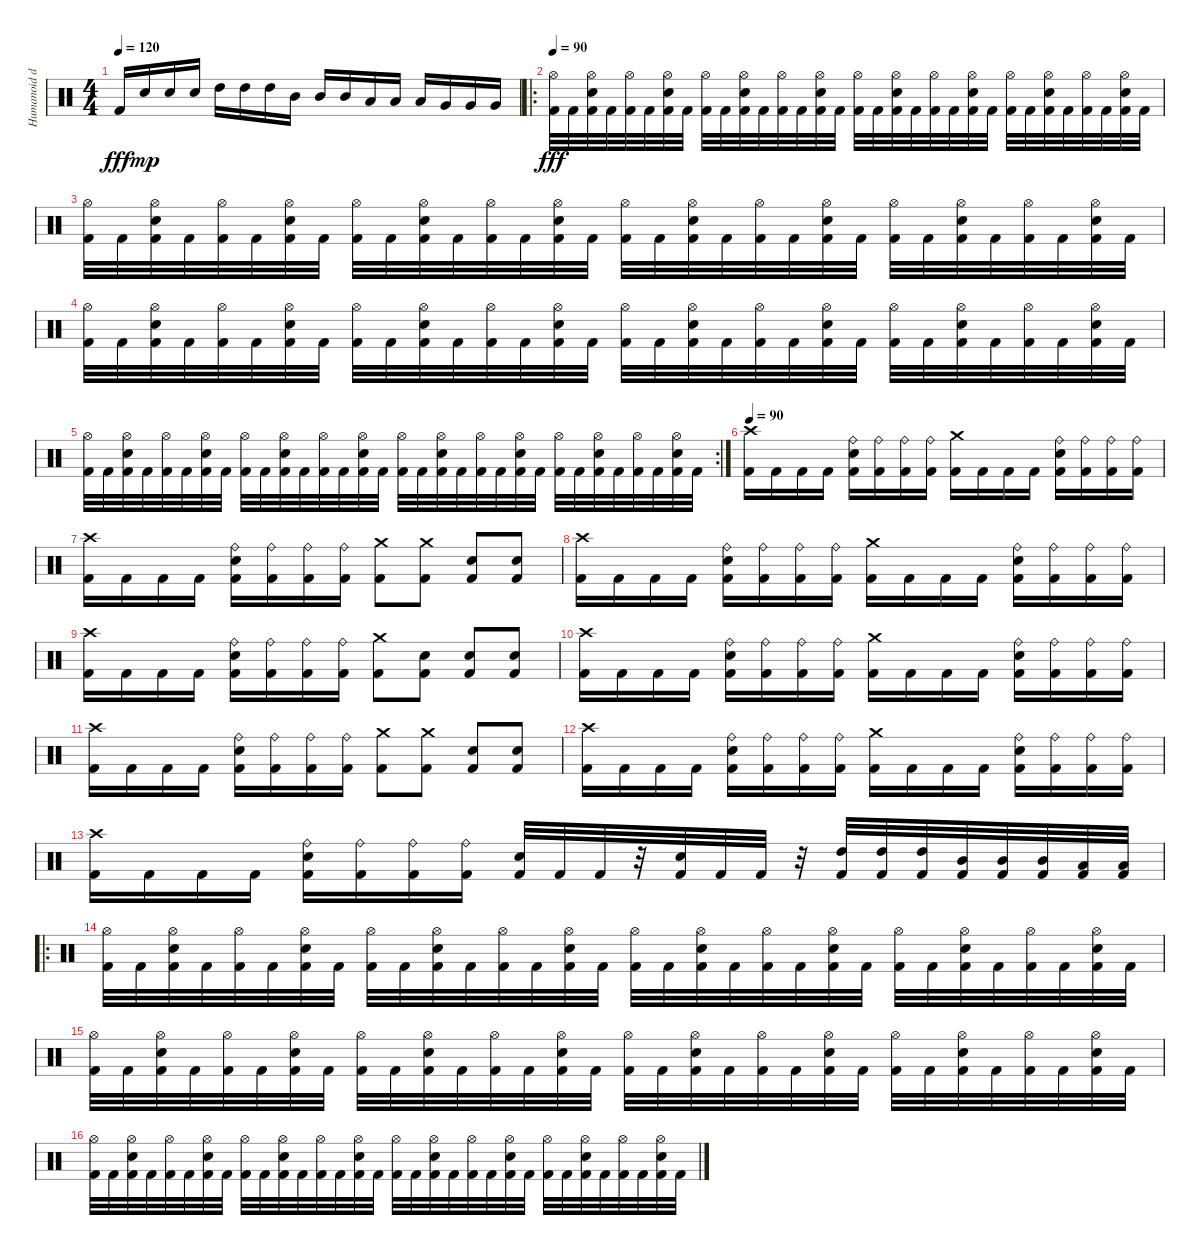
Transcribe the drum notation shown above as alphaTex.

\track ("Humanoid drum machine" "Humanoid d") {instrument percussion}
\staff {score}
\articulation defaults
\ts (4 4)
\tempo 120
\clef neutral
\ks c "Kick (hit) 2".16{dy fff} "Electric Snare (hit)".16{dy mp} "Electric Snare (hit)".16 "Electric Snare (hit)".16 "High Tom (hit)".16 "High Tom (hit)".16 "High Tom (hit)".16 "Mid Tom (hit)".16 "Mid Tom (hit)".16 "Mid Tom (hit)".16 "Low Tom (hit)".16 "Low Tom (hit)".16 "Low Tom (hit)".16 "Very Low Tom (hit)".16 "Very Low Tom (hit)".16 "Very Low Tom (hit)".16
|
\ro
\tempo 90
("Hi-Hat (open)" "Kick (hit) 2").32{dy fff} "Kick (hit) 2".32 ("Hi-Hat (open)" "Electric Snare (hit)" "Kick (hit) 2").32 "Kick (hit) 2".32 ("Hi-Hat (open)" "Kick (hit) 2").32 "Kick (hit) 2".32 ("Hi-Hat (open)" "Electric Snare (hit)" "Kick (hit) 2").32 "Kick (hit) 2".32 ("Hi-Hat (open)" "Kick (hit) 2").32 "Kick (hit) 2".32 ("Hi-Hat (open)" "Electric Snare (hit)" "Kick (hit) 2").32 "Kick (hit) 2".32 ("Hi-Hat (open)" "Kick (hit) 2").32 "Kick (hit) 2".32 ("Hi-Hat (open)" "Electric Snare (hit)" "Kick (hit) 2").32 "Kick (hit) 2".32 ("Hi-Hat (open)" "Kick (hit) 2").32 "Kick (hit) 2".32 ("Hi-Hat (open)" "Electric Snare (hit)" "Kick (hit) 2").32 "Kick (hit) 2".32 ("Hi-Hat (open)" "Kick (hit) 2").32 "Kick (hit) 2".32 ("Hi-Hat (open)" "Electric Snare (hit)" "Kick (hit) 2").32 "Kick (hit) 2".32 ("Hi-Hat (open)" "Kick (hit) 2").32 "Kick (hit) 2".32 ("Hi-Hat (open)" "Electric Snare (hit)" "Kick (hit) 2").32 "Kick (hit) 2".32 ("Hi-Hat (open)" "Kick (hit) 2").32 "Kick (hit) 2".32 ("Hi-Hat (open)" "Electric Snare (hit)" "Kick (hit) 2").32 "Kick (hit) 2".32 |
("Hi-Hat (open)" "Kick (hit) 2").32 "Kick (hit) 2".32 ("Hi-Hat (open)" "Electric Snare (hit)" "Kick (hit) 2").32 "Kick (hit) 2".32 ("Hi-Hat (open)" "Kick (hit) 2").32 "Kick (hit) 2".32 ("Hi-Hat (open)" "Electric Snare (hit)" "Kick (hit) 2").32 "Kick (hit) 2".32 ("Hi-Hat (open)" "Kick (hit) 2").32 "Kick (hit) 2".32 ("Hi-Hat (open)" "Electric Snare (hit)" "Kick (hit) 2").32 "Kick (hit) 2".32 ("Hi-Hat (open)" "Kick (hit) 2").32 "Kick (hit) 2".32 ("Hi-Hat (open)" "Electric Snare (hit)" "Kick (hit) 2").32 "Kick (hit) 2".32 ("Hi-Hat (open)" "Kick (hit) 2").32 "Kick (hit) 2".32 ("Hi-Hat (open)" "Electric Snare (hit)" "Kick (hit) 2").32 "Kick (hit) 2".32 ("Hi-Hat (open)" "Kick (hit) 2").32 "Kick (hit) 2".32 ("Hi-Hat (open)" "Electric Snare (hit)" "Kick (hit) 2").32 "Kick (hit) 2".32 ("Hi-Hat (open)" "Kick (hit) 2").32 "Kick (hit) 2".32 ("Hi-Hat (open)" "Electric Snare (hit)" "Kick (hit) 2").32 "Kick (hit) 2".32 ("Hi-Hat (open)" "Kick (hit) 2").32 "Kick (hit) 2".32 ("Hi-Hat (open)" "Electric Snare (hit)" "Kick (hit) 2").32 "Kick (hit) 2".32 |
("Hi-Hat (open)" "Kick (hit) 2").32 "Kick (hit) 2".32 ("Hi-Hat (open)" "Electric Snare (hit)" "Kick (hit) 2").32 "Kick (hit) 2".32 ("Hi-Hat (open)" "Kick (hit) 2").32 "Kick (hit) 2".32 ("Hi-Hat (open)" "Electric Snare (hit)" "Kick (hit) 2").32 "Kick (hit) 2".32 ("Hi-Hat (open)" "Kick (hit) 2").32 "Kick (hit) 2".32 ("Hi-Hat (open)" "Electric Snare (hit)" "Kick (hit) 2").32 "Kick (hit) 2".32 ("Hi-Hat (open)" "Kick (hit) 2").32 "Kick (hit) 2".32 ("Hi-Hat (open)" "Electric Snare (hit)" "Kick (hit) 2").32 "Kick (hit) 2".32 ("Hi-Hat (open)" "Kick (hit) 2").32 "Kick (hit) 2".32 ("Hi-Hat (open)" "Electric Snare (hit)" "Kick (hit) 2").32 "Kick (hit) 2".32 ("Hi-Hat (open)" "Kick (hit) 2").32 "Kick (hit) 2".32 ("Hi-Hat (open)" "Electric Snare (hit)" "Kick (hit) 2").32 "Kick (hit) 2".32 ("Hi-Hat (open)" "Kick (hit) 2").32 "Kick (hit) 2".32 ("Hi-Hat (open)" "Electric Snare (hit)" "Kick (hit) 2").32 "Kick (hit) 2".32 ("Hi-Hat (open)" "Kick (hit) 2").32 "Kick (hit) 2".32 ("Hi-Hat (open)" "Electric Snare (hit)" "Kick (hit) 2").32 "Kick (hit) 2".32 |
\rc 2
("Hi-Hat (open)" "Kick (hit) 2").32 "Kick (hit) 2".32 ("Hi-Hat (open)" "Electric Snare (hit)" "Kick (hit) 2").32 "Kick (hit) 2".32 ("Hi-Hat (open)" "Kick (hit) 2").32 "Kick (hit) 2".32 ("Hi-Hat (open)" "Electric Snare (hit)" "Kick (hit) 2").32 "Kick (hit) 2".32 ("Hi-Hat (open)" "Kick (hit) 2").32 "Kick (hit) 2".32 ("Hi-Hat (open)" "Electric Snare (hit)" "Kick (hit) 2").32 "Kick (hit) 2".32 ("Hi-Hat (open)" "Kick (hit) 2").32 "Kick (hit) 2".32 ("Hi-Hat (open)" "Electric Snare (hit)" "Kick (hit) 2").32 "Kick (hit) 2".32 ("Hi-Hat (open)" "Kick (hit) 2").32 "Kick (hit) 2".32 ("Hi-Hat (open)" "Electric Snare (hit)" "Kick (hit) 2").32 "Kick (hit) 2".32 ("Hi-Hat (open)" "Kick (hit) 2").32 "Kick (hit) 2".32 ("Hi-Hat (open)" "Electric Snare (hit)" "Kick (hit) 2").32 "Kick (hit) 2".32 ("Hi-Hat (open)" "Kick (hit) 2").32 "Kick (hit) 2".32 ("Hi-Hat (open)" "Electric Snare (hit)" "Kick (hit) 2").32 "Kick (hit) 2".32 ("Hi-Hat (open)" "Kick (hit) 2").32 "Kick (hit) 2".32 ("Hi-Hat (open)" "Electric Snare (hit)" "Kick (hit) 2").32 "Kick (hit) 2".32 |
\tempo 90
("Crash high (hit)" "Kick (hit) 2").16 "Kick (hit) 2".16 "Kick (hit) 2".16 "Kick (hit) 2".16 ("Electric Snare (hit)" "Ride (bell)" "Kick (hit) 2").16 ("Ride (bell)" "Kick (hit) 2").16 ("Ride (bell)" "Kick (hit) 2").16 ("Ride (bell)" "Kick (hit) 2").16 ("Crash medium (hit)" "Kick (hit) 2").16 "Kick (hit) 2".16 "Kick (hit) 2".16 "Kick (hit) 2".16 ("Electric Snare (hit)" "Ride (bell)" "Kick (hit) 2").16 ("Ride (bell)" "Kick (hit) 2").16 ("Ride (bell)" "Kick (hit) 2").16 ("Ride (bell)" "Kick (hit) 2").16 |
("Crash high (hit)" "Kick (hit) 2").16 "Kick (hit) 2".16 "Kick (hit) 2".16 "Kick (hit) 2".16 ("Electric Snare (hit)" "Ride (bell)" "Kick (hit) 2").16 ("Ride (bell)" "Kick (hit) 2").16 ("Ride (bell)" "Kick (hit) 2").16 ("Ride (bell)" "Kick (hit) 2").16 ("Crash medium (hit)" "Kick (hit) 2").8 ("Crash medium (hit)" "Kick (hit) 2").8 ("Electric Snare (hit)" "Kick (hit) 2").8 ("Electric Snare (hit)" "Kick (hit) 2").8 |
("Crash high (hit)" "Kick (hit) 2").16 "Kick (hit) 2".16 "Kick (hit) 2".16 "Kick (hit) 2".16 ("Electric Snare (hit)" "Ride (bell)" "Kick (hit) 2").16 ("Ride (bell)" "Kick (hit) 2").16 ("Ride (bell)" "Kick (hit) 2").16 ("Ride (bell)" "Kick (hit) 2").16 ("Crash medium (hit)" "Kick (hit) 2").16 "Kick (hit) 2".16 "Kick (hit) 2".16 "Kick (hit) 2".16 ("Electric Snare (hit)" "Ride (bell)" "Kick (hit) 2").16 ("Ride (bell)" "Kick (hit) 2").16 ("Ride (bell)" "Kick (hit) 2").16 ("Ride (bell)" "Kick (hit) 2").16 |
("Crash high (hit)" "Kick (hit) 2").16 "Kick (hit) 2".16 "Kick (hit) 2".16 "Kick (hit) 2".16 ("Electric Snare (hit)" "Ride (bell)" "Kick (hit) 2").16 ("Ride (bell)" "Kick (hit) 2").16 ("Ride (bell)" "Kick (hit) 2").16 ("Ride (bell)" "Kick (hit) 2").16 ("Crash medium (hit)" "Kick (hit) 2").8 ("Electric Snare (hit)" "Kick (hit) 2").8 ("Electric Snare (hit)" "Kick (hit) 2").8 ("Electric Snare (hit)" "Kick (hit) 2").8 |
("Crash high (hit)" "Kick (hit) 2").16 "Kick (hit) 2".16 "Kick (hit) 2".16 "Kick (hit) 2".16 ("Electric Snare (hit)" "Ride (bell)" "Kick (hit) 2").16 ("Ride (bell)" "Kick (hit) 2").16 ("Ride (bell)" "Kick (hit) 2").16 ("Ride (bell)" "Kick (hit) 2").16 ("Crash medium (hit)" "Kick (hit) 2").16 "Kick (hit) 2".16 "Kick (hit) 2".16 "Kick (hit) 2".16 ("Electric Snare (hit)" "Ride (bell)" "Kick (hit) 2").16 ("Ride (bell)" "Kick (hit) 2").16 ("Ride (bell)" "Kick (hit) 2").16 ("Ride (bell)" "Kick (hit) 2").16 |
("Crash high (hit)" "Kick (hit) 2").16 "Kick (hit) 2".16 "Kick (hit) 2".16 "Kick (hit) 2".16 ("Electric Snare (hit)" "Ride (bell)" "Kick (hit) 2").16 ("Ride (bell)" "Kick (hit) 2").16 ("Ride (bell)" "Kick (hit) 2").16 ("Ride (bell)" "Kick (hit) 2").16 ("Crash medium (hit)" "Kick (hit) 2").8 ("Crash medium (hit)" "Kick (hit) 2").8 ("Electric Snare (hit)" "Kick (hit) 2").8 ("Electric Snare (hit)" "Kick (hit) 2").8 |
("Crash high (hit)" "Kick (hit) 2").16 "Kick (hit) 2".16 "Kick (hit) 2".16 "Kick (hit) 2".16 ("Electric Snare (hit)" "Ride (bell)" "Kick (hit) 2").16 ("Ride (bell)" "Kick (hit) 2").16 ("Ride (bell)" "Kick (hit) 2").16 ("Ride (bell)" "Kick (hit) 2").16 ("Crash medium (hit)" "Kick (hit) 2").16 "Kick (hit) 2".16 "Kick (hit) 2".16 "Kick (hit) 2".16 ("Electric Snare (hit)" "Ride (bell)" "Kick (hit) 2").16 ("Ride (bell)" "Kick (hit) 2").16 ("Ride (bell)" "Kick (hit) 2").16 ("Ride (bell)" "Kick (hit) 2").16 |
("Crash high (hit)" "Kick (hit) 2").16 "Kick (hit) 2".16 "Kick (hit) 2".16 "Kick (hit) 2".16 ("Electric Snare (hit)" "Ride (bell)" "Kick (hit) 2").16 ("Ride (bell)" "Kick (hit) 2").16 ("Ride (bell)" "Kick (hit) 2").16 ("Ride (bell)" "Kick (hit) 2").16 ("Electric Snare (hit)" "Kick (hit) 2").32 "Kick (hit) 2".32 "Kick (hit) 2".32 r.32 ("Electric Snare (hit)" "Kick (hit) 2").32 "Kick (hit) 2".32 "Kick (hit) 2".32 r.32 ("High Tom (hit)" "Kick (hit) 2").32 ("High Tom (hit)" "Kick (hit) 2").32 ("High Tom (hit)" "Kick (hit) 2").32 ("Mid Tom (hit)" "Kick (hit) 2").32 ("Mid Tom (hit)" "Kick (hit) 2").32 ("Mid Tom (hit)" "Kick (hit) 2").32 ("Low Tom (hit)" "Kick (hit) 2").32 ("Low Tom (hit)" "Kick (hit) 2").32 |
\ro
("Hi-Hat (open)" "Kick (hit) 2").32 "Kick (hit) 2".32 ("Hi-Hat (open)" "Electric Snare (hit)" "Kick (hit) 2").32 "Kick (hit) 2".32 ("Hi-Hat (open)" "Kick (hit) 2").32 "Kick (hit) 2".32 ("Hi-Hat (open)" "Electric Snare (hit)" "Kick (hit) 2").32 "Kick (hit) 2".32 ("Hi-Hat (open)" "Kick (hit) 2").32 "Kick (hit) 2".32 ("Hi-Hat (open)" "Electric Snare (hit)" "Kick (hit) 2").32 "Kick (hit) 2".32 ("Hi-Hat (open)" "Kick (hit) 2").32 "Kick (hit) 2".32 ("Hi-Hat (open)" "Electric Snare (hit)" "Kick (hit) 2").32 "Kick (hit) 2".32 ("Hi-Hat (open)" "Kick (hit) 2").32 "Kick (hit) 2".32 ("Hi-Hat (open)" "Electric Snare (hit)" "Kick (hit) 2").32 "Kick (hit) 2".32 ("Hi-Hat (open)" "Kick (hit) 2").32 "Kick (hit) 2".32 ("Hi-Hat (open)" "Electric Snare (hit)" "Kick (hit) 2").32 "Kick (hit) 2".32 ("Hi-Hat (open)" "Kick (hit) 2").32 "Kick (hit) 2".32 ("Hi-Hat (open)" "Electric Snare (hit)" "Kick (hit) 2").32 "Kick (hit) 2".32 ("Hi-Hat (open)" "Kick (hit) 2").32 "Kick (hit) 2".32 ("Hi-Hat (open)" "Electric Snare (hit)" "Kick (hit) 2").32 "Kick (hit) 2".32 |
("Hi-Hat (open)" "Kick (hit) 2").32 "Kick (hit) 2".32 ("Hi-Hat (open)" "Electric Snare (hit)" "Kick (hit) 2").32 "Kick (hit) 2".32 ("Hi-Hat (open)" "Kick (hit) 2").32 "Kick (hit) 2".32 ("Hi-Hat (open)" "Electric Snare (hit)" "Kick (hit) 2").32 "Kick (hit) 2".32 ("Hi-Hat (open)" "Kick (hit) 2").32 "Kick (hit) 2".32 ("Hi-Hat (open)" "Electric Snare (hit)" "Kick (hit) 2").32 "Kick (hit) 2".32 ("Hi-Hat (open)" "Kick (hit) 2").32 "Kick (hit) 2".32 ("Hi-Hat (open)" "Electric Snare (hit)" "Kick (hit) 2").32 "Kick (hit) 2".32 ("Hi-Hat (open)" "Kick (hit) 2").32 "Kick (hit) 2".32 ("Hi-Hat (open)" "Electric Snare (hit)" "Kick (hit) 2").32 "Kick (hit) 2".32 ("Hi-Hat (open)" "Kick (hit) 2").32 "Kick (hit) 2".32 ("Hi-Hat (open)" "Electric Snare (hit)" "Kick (hit) 2").32 "Kick (hit) 2".32 ("Hi-Hat (open)" "Kick (hit) 2").32 "Kick (hit) 2".32 ("Hi-Hat (open)" "Electric Snare (hit)" "Kick (hit) 2").32 "Kick (hit) 2".32 ("Hi-Hat (open)" "Kick (hit) 2").32 "Kick (hit) 2".32 ("Hi-Hat (open)" "Electric Snare (hit)" "Kick (hit) 2").32 "Kick (hit) 2".32 |
("Hi-Hat (open)" "Kick (hit) 2").32 "Kick (hit) 2".32 ("Hi-Hat (open)" "Electric Snare (hit)" "Kick (hit) 2").32 "Kick (hit) 2".32 ("Hi-Hat (open)" "Kick (hit) 2").32 "Kick (hit) 2".32 ("Hi-Hat (open)" "Electric Snare (hit)" "Kick (hit) 2").32 "Kick (hit) 2".32 ("Hi-Hat (open)" "Kick (hit) 2").32 "Kick (hit) 2".32 ("Hi-Hat (open)" "Electric Snare (hit)" "Kick (hit) 2").32 "Kick (hit) 2".32 ("Hi-Hat (open)" "Kick (hit) 2").32 "Kick (hit) 2".32 ("Hi-Hat (open)" "Electric Snare (hit)" "Kick (hit) 2").32 "Kick (hit) 2".32 ("Hi-Hat (open)" "Kick (hit) 2").32 "Kick (hit) 2".32 ("Hi-Hat (open)" "Electric Snare (hit)" "Kick (hit) 2").32 "Kick (hit) 2".32 ("Hi-Hat (open)" "Kick (hit) 2").32 "Kick (hit) 2".32 ("Hi-Hat (open)" "Electric Snare (hit)" "Kick (hit) 2").32 "Kick (hit) 2".32 ("Hi-Hat (open)" "Kick (hit) 2").32 "Kick (hit) 2".32 ("Hi-Hat (open)" "Electric Snare (hit)" "Kick (hit) 2").32 "Kick (hit) 2".32 ("Hi-Hat (open)" "Kick (hit) 2").32 "Kick (hit) 2".32 ("Hi-Hat (open)" "Electric Snare (hit)" "Kick (hit) 2").32 "Kick (hit) 2".32
